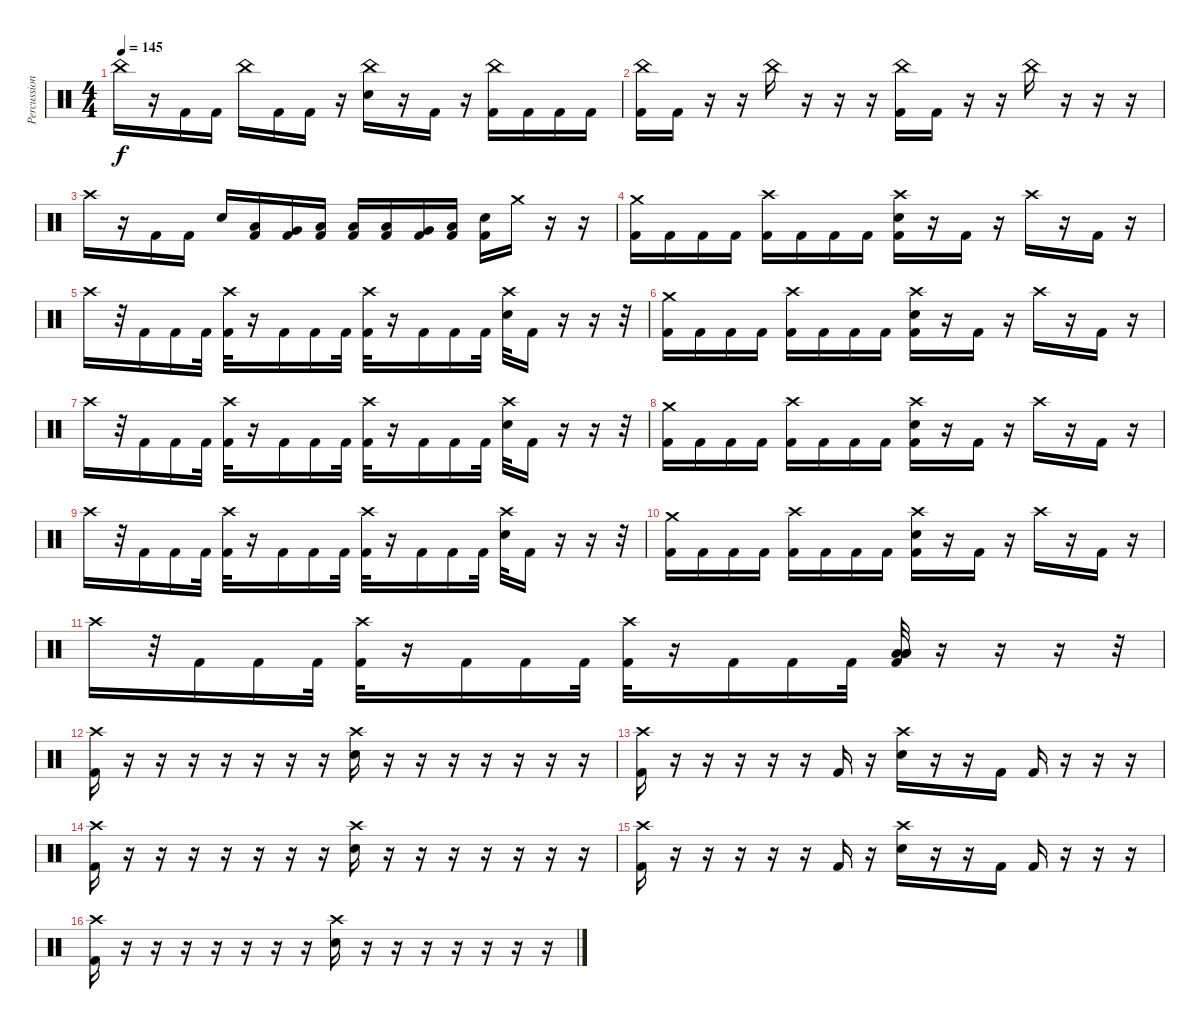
\track ("Percussion" "Percussion") {instrument percussion}
\staff {score}
\articulation defaults
\ts (4 4)
\tempo 145
\clef neutral
\ks c "China (hit)".16{dy f}
r.16 "Kick (hit) 2".16 "Kick (hit) 2".16 "China (hit)".16 "Kick (hit) 2".16 "Kick (hit) 2".16 r.16 ("China (hit)" "Electric Snare (hit)").16 r.16 "Kick (hit) 2".16 r.16 ("China (hit)" "Kick (hit) 2").16 "Kick (hit) 2".16 "Kick (hit) 2".16 "Kick (hit) 2".16 |
("China (hit)" "Kick (hit) 2").16 "Kick (hit) 2".16 r.16 r.16 "China (hit)".16 r.16 r.16 r.16 ("China (hit)" "Kick (hit) 2").16 "Kick (hit) 2".16 r.16 r.16 "China (hit)".16 r.16 r.16 r.16 |
"Crash high (hit)".16 r.16 "Kick (hit) 2".16 "Kick (hit) 2".16 "Electric Snare (hit)".16 ("Low Tom (hit)" "Kick (hit) 2").16 ("Very Low Tom (hit)" "Kick (hit) 2").16 ("Low Floor Tom (hit)" "Kick (hit) 2").16 ("Low Floor Tom (hit)" "Kick (hit) 2").16 ("Low Tom (hit)" "Kick (hit) 2").16 ("Very Low Tom (hit)" "Kick (hit) 2").16 ("Low Floor Tom (hit)" "Kick (hit) 2").16 ("Electric Snare (hit)" "Kick (hit) 2").16 "Crash medium (hit)".16 r.16 r.16 |
("Crash medium (hit)" "Kick (hit) 2").16 "Kick (hit) 2".16 "Kick (hit) 2".16 "Kick (hit) 2".16 ("Crash high (hit)" "Kick (hit) 2").16 "Kick (hit) 2".16 "Kick (hit) 2".16 "Kick (hit) 2".16 ("Crash high (hit)" "Electric Snare (hit)" "Kick (hit) 2").16 r.16 "Kick (hit) 2".16 r.16 "Crash high (hit)".16 r.16 "Kick (hit) 2".16 r.16 |
"Crash high (hit)".16 r.32 "Kick (hit) 2".16 "Kick (hit) 2".16 "Kick (hit) 2".32 ("Crash high (hit)" "Kick (hit) 2").32 r.16 "Kick (hit) 2".16 "Kick (hit) 2".16 "Kick (hit) 2".32 ("Crash high (hit)" "Kick (hit) 2").32 r.16 "Kick (hit) 2".16 "Kick (hit) 2".16 "Kick (hit) 2".32 ("Crash high (hit)" "Electric Snare (hit)").32 "Kick (hit) 2".16 r.16 r.16 r.32 |
("Crash medium (hit)" "Kick (hit) 2").16 "Kick (hit) 2".16 "Kick (hit) 2".16 "Kick (hit) 2".16 ("Crash high (hit)" "Kick (hit) 2").16 "Kick (hit) 2".16 "Kick (hit) 2".16 "Kick (hit) 2".16 ("Crash high (hit)" "Electric Snare (hit)" "Kick (hit) 2").16 r.16 "Kick (hit) 2".16 r.16 "Crash high (hit)".16 r.16 "Kick (hit) 2".16 r.16 |
"Crash high (hit)".16 r.32 "Kick (hit) 2".16 "Kick (hit) 2".16 "Kick (hit) 2".32 ("Crash high (hit)" "Kick (hit) 2").32 r.16 "Kick (hit) 2".16 "Kick (hit) 2".16 "Kick (hit) 2".32 ("Crash high (hit)" "Kick (hit) 2").32 r.16 "Kick (hit) 2".16 "Kick (hit) 2".16 "Kick (hit) 2".32 ("Crash high (hit)" "Electric Snare (hit)").32 "Kick (hit) 2".16 r.16 r.16 r.32 |
("Crash medium (hit)" "Kick (hit) 2").16 "Kick (hit) 2".16 "Kick (hit) 2".16 "Kick (hit) 2".16 ("Crash high (hit)" "Kick (hit) 2").16 "Kick (hit) 2".16 "Kick (hit) 2".16 "Kick (hit) 2".16 ("Crash high (hit)" "Electric Snare (hit)" "Kick (hit) 2").16 r.16 "Kick (hit) 2".16 r.16 "Crash high (hit)".16 r.16 "Kick (hit) 2".16 r.16 |
"Crash high (hit)".16 r.32 "Kick (hit) 2".16 "Kick (hit) 2".16 "Kick (hit) 2".32 ("Crash high (hit)" "Kick (hit) 2").32 r.16 "Kick (hit) 2".16 "Kick (hit) 2".16 "Kick (hit) 2".32 ("Crash high (hit)" "Kick (hit) 2").32 r.16 "Kick (hit) 2".16 "Kick (hit) 2".16 "Kick (hit) 2".32 ("Crash high (hit)" "Electric Snare (hit)").32 "Kick (hit) 2".16 r.16 r.16 r.32 |
("Crash medium (hit)" "Kick (hit) 2").16 "Kick (hit) 2".16 "Kick (hit) 2".16 "Kick (hit) 2".16 ("Crash high (hit)" "Kick (hit) 2").16 "Kick (hit) 2".16 "Kick (hit) 2".16 "Kick (hit) 2".16 ("Crash high (hit)" "Electric Snare (hit)" "Kick (hit) 2").16 r.16 "Kick (hit) 2".16 r.16 "Crash high (hit)".16 r.16 "Kick (hit) 2".16 r.16 |
"Crash high (hit)".16 r.32 "Kick (hit) 2".16 "Kick (hit) 2".16 "Kick (hit) 2".32 ("Crash high (hit)" "Kick (hit) 2").32 r.16 "Kick (hit) 2".16 "Kick (hit) 2".16 "Kick (hit) 2".32 ("Crash high (hit)" "Kick (hit) 2").32 r.16 "Kick (hit) 2".16 "Kick (hit) 2".16 "Kick (hit) 2".32 ("Low Floor Tom (hit)" "Low Floor Tom (hit)" "Low Floor Tom (hit)" "Kick (hit) 2").32 r.16 r.16 r.16 r.32 |
("Crash high (hit)" "Kick (hit) 2").16 r.16 r.16 r.16 r.16 r.16 r.16 r.16 ("Crash high (hit)" "Electric Snare (hit)").16 r.16 r.16 r.16 r.16 r.16 r.16 r.16 |
("Crash high (hit)" "Kick (hit) 2").16 r.16 r.16 r.16 r.16 r.16 "Kick (hit) 2".16 r.16 ("Crash high (hit)" "Electric Snare (hit)").16 r.16 r.16 "Kick (hit) 2".16 "Kick (hit) 2".16 r.16 r.16 r.16 |
("Crash high (hit)" "Kick (hit) 2").16 r.16 r.16 r.16 r.16 r.16 r.16 r.16 ("Crash high (hit)" "Electric Snare (hit)").16 r.16 r.16 r.16 r.16 r.16 r.16 r.16 |
("Crash high (hit)" "Kick (hit) 2").16 r.16 r.16 r.16 r.16 r.16 "Kick (hit) 2".16 r.16 ("Crash high (hit)" "Electric Snare (hit)").16 r.16 r.16 "Kick (hit) 2".16 "Kick (hit) 2".16 r.16 r.16 r.16 |
("Crash high (hit)" "Kick (hit) 2").16 r.16 r.16 r.16 r.16 r.16 r.16 r.16 ("Crash high (hit)" "Electric Snare (hit)").16 r.16 r.16 r.16 r.16 r.16 r.16 r.16
